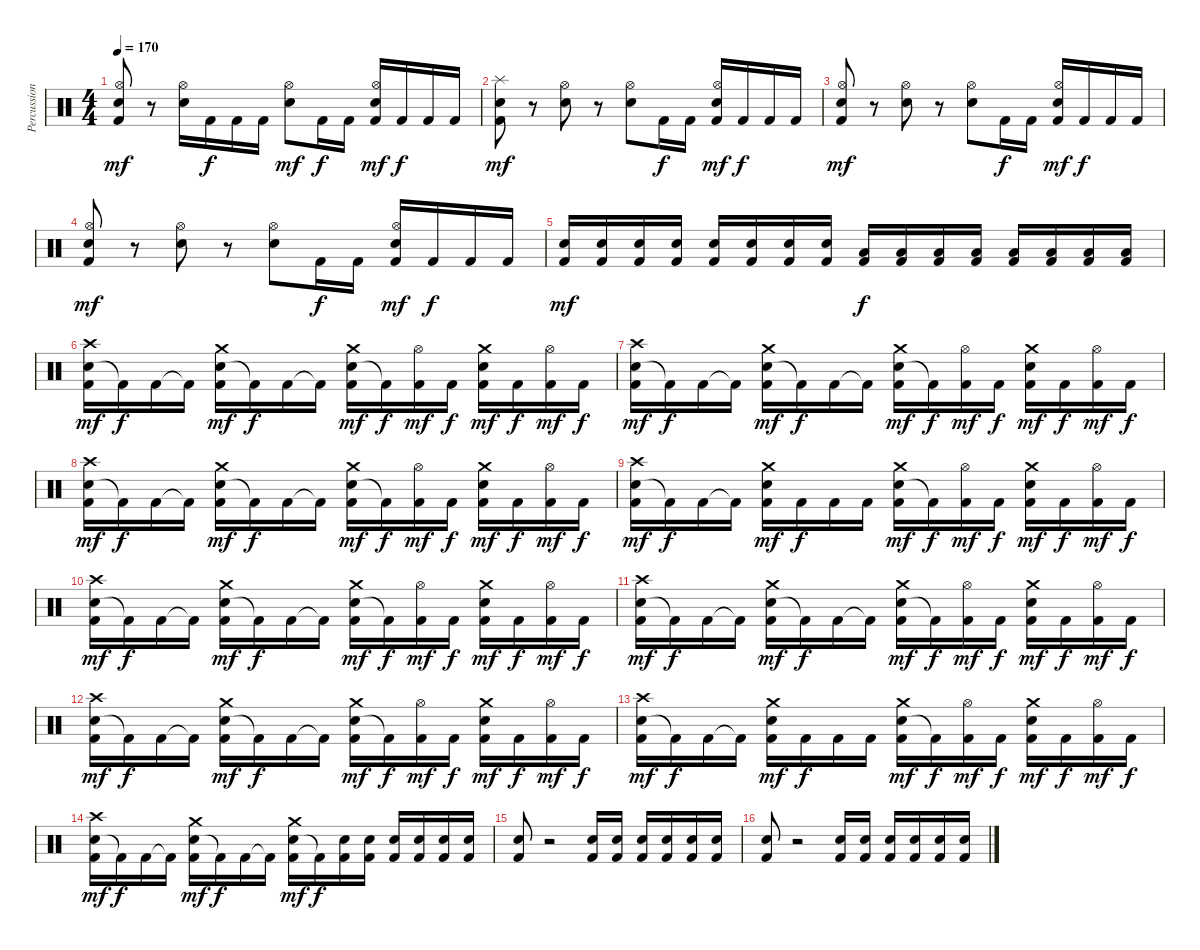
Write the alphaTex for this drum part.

\track ("Percussion" "Percussion") {instrument percussion}
\staff {score}
\articulation defaults
\ts (4 4)
\tempo 170
\clef neutral
\ks c
("Snare (hit) 2" "Hi-Hat (open)" "Kick (hit) 2").8{dy mf} r.8 ("Snare (hit) 2" "Hi-Hat (open)").16 "Kick (hit) 2".16{dy f} "Kick (hit) 2".16 "Kick (hit) 2".16 ("Snare (hit) 2" "Hi-Hat (open)").8{dy mf} "Kick (hit) 2".16{dy f} "Kick (hit) 2".16 ("Snare (hit) 2" "Hi-Hat (open)" "Kick (hit) 2").16{dy mf} "Kick (hit) 2".16{dy f} "Kick (hit) 2".16 "Kick (hit) 2".16 |
("Snare (hit) 2" "Splash (hit)" "Kick (hit) 2").8{dy mf} r.8 ("Snare (hit) 2" "Hi-Hat (open)").8 r.8 ("Snare (hit) 2" "Hi-Hat (open)").8 "Kick (hit) 2".16{dy f} "Kick (hit) 2".16 ("Snare (hit) 2" "Hi-Hat (open)" "Kick (hit) 2").16{dy mf} "Kick (hit) 2".16{dy f} "Kick (hit) 2".16 "Kick (hit) 2".16 |
("Snare (hit) 2" "Hi-Hat (open)" "Kick (hit) 2").8{dy mf} r.8 ("Snare (hit) 2" "Hi-Hat (open)").8 r.8 ("Snare (hit) 2" "Hi-Hat (open)").8 "Kick (hit) 2".16{dy f} "Kick (hit) 2".16 ("Snare (hit) 2" "Hi-Hat (open)" "Kick (hit) 2").16{dy mf} "Kick (hit) 2".16{dy f} "Kick (hit) 2".16 "Kick (hit) 2".16 |
("Snare (hit) 2" "Hi-Hat (open)" "Kick (hit) 2").8{dy mf} r.8 ("Snare (hit) 2" "Hi-Hat (open)").8 r.8 ("Snare (hit) 2" "Hi-Hat (open)").8 "Kick (hit) 2".16{dy f} "Kick (hit) 2".16 ("Snare (hit) 2" "Hi-Hat (open)" "Kick (hit) 2").16{dy mf} "Kick (hit) 2".16{dy f} "Kick (hit) 2".16 "Kick (hit) 2".16 |
("Snare (hit) 2" "Kick (hit) 2").16{dy mf} ("Snare (hit) 2" "Kick (hit) 2").16 ("Snare (hit) 2" "Kick (hit) 2").16 ("Snare (hit) 2" "Kick (hit) 2").16 ("Snare (hit) 2" "Kick (hit) 2").16 ("Snare (hit) 2" "Kick (hit) 2").16 ("Snare (hit) 2" "Kick (hit) 2").16 ("Snare (hit) 2" "Kick (hit) 2").16 ("Low Tom (hit)" "Kick (hit) 2").16{dy f} ("Low Tom (hit)" "Kick (hit) 2").16 ("Low Tom (hit)" "Kick (hit) 2").16 ("Low Tom (hit)" "Kick (hit) 2").16 ("Low Tom (hit)" "Kick (hit) 2").16 ("Low Tom (hit)" "Kick (hit) 2").16 ("Low Tom (hit)" "Kick (hit) 2").16 ("Low Tom (hit)" "Kick (hit) 2").16 |
("Snare (hit) 2" "Crash high (hit)" "Kick (hit) 2").16{dy mf} "Kick (hit) 2"{t}.16{dy f} "Kick (hit) 2".16 "Kick (hit) 2"{t}.16 ("Snare (hit) 2" "Crash medium (hit)" "Kick (hit) 2").16{dy mf} "Kick (hit) 2"{t}.16{dy f} "Kick (hit) 2".16 "Kick (hit) 2"{t}.16 ("Snare (hit) 2" "Crash medium (hit)" "Kick (hit) 2").16{dy mf} "Kick (hit) 2"{t}.16{dy f} ("Hi-Hat (open)" "Kick (hit) 2").16{dy mf} "Kick (hit) 2".16{dy f} ("Snare (hit) 2" "Crash medium (hit)" "Kick (hit) 2").16{dy mf} "Kick (hit) 2".16{dy f} ("Hi-Hat (open)" "Kick (hit) 2").16{dy mf} "Kick (hit) 2".16{dy f} |
("Snare (hit) 2" "Crash high (hit)" "Kick (hit) 2").16{dy mf} "Kick (hit) 2"{t}.16{dy f} "Kick (hit) 2".16 "Kick (hit) 2"{t}.16 ("Snare (hit) 2" "Crash medium (hit)" "Kick (hit) 2").16{dy mf} "Kick (hit) 2"{t}.16{dy f} "Kick (hit) 2".16 "Kick (hit) 2"{t}.16 ("Snare (hit) 2" "Crash medium (hit)" "Kick (hit) 2").16{dy mf} "Kick (hit) 2"{t}.16{dy f} ("Hi-Hat (open)" "Kick (hit) 2").16{dy mf} "Kick (hit) 2".16{dy f} ("Snare (hit) 2" "Crash medium (hit)" "Kick (hit) 2").16{dy mf} "Kick (hit) 2".16{dy f} ("Hi-Hat (open)" "Kick (hit) 2").16{dy mf} "Kick (hit) 2".16{dy f} |
("Snare (hit) 2" "Crash high (hit)" "Kick (hit) 2").16{dy mf} "Kick (hit) 2"{t}.16{dy f} "Kick (hit) 2".16 "Kick (hit) 2"{t}.16 ("Snare (hit) 2" "Crash medium (hit)" "Kick (hit) 2").16{dy mf} "Kick (hit) 2"{t}.16{dy f} "Kick (hit) 2".16 "Kick (hit) 2"{t}.16 ("Snare (hit) 2" "Crash medium (hit)" "Kick (hit) 2").16{dy mf} "Kick (hit) 2"{t}.16{dy f} ("Hi-Hat (open)" "Kick (hit) 2").16{dy mf} "Kick (hit) 2".16{dy f} ("Snare (hit) 2" "Crash medium (hit)" "Kick (hit) 2").16{dy mf} "Kick (hit) 2".16{dy f} ("Hi-Hat (open)" "Kick (hit) 2").16{dy mf} "Kick (hit) 2".16{dy f} |
("Snare (hit) 2" "Crash high (hit)" "Kick (hit) 2").16{dy mf} "Kick (hit) 2"{t}.16{dy f} "Kick (hit) 2".16 "Kick (hit) 2"{t}.16 ("Snare (hit) 2" "Crash medium (hit)" "Kick (hit) 2").16{dy mf} "Kick (hit) 2".16{dy f} "Kick (hit) 2".16 "Kick (hit) 2".16 ("Snare (hit) 2" "Crash medium (hit)" "Kick (hit) 2").16{dy mf} "Kick (hit) 2"{t}.16{dy f} ("Hi-Hat (open)" "Kick (hit) 2").16{dy mf} "Kick (hit) 2".16{dy f} ("Snare (hit) 2" "Crash medium (hit)" "Kick (hit) 2").16{dy mf} "Kick (hit) 2".16{dy f} ("Hi-Hat (open)" "Kick (hit) 2").16{dy mf} "Kick (hit) 2".16{dy f} |
("Snare (hit) 2" "Crash high (hit)" "Kick (hit) 2").16{dy mf} "Kick (hit) 2"{t}.16{dy f} "Kick (hit) 2".16 "Kick (hit) 2"{t}.16 ("Snare (hit) 2" "Crash medium (hit)" "Kick (hit) 2").16{dy mf} "Kick (hit) 2"{t}.16{dy f} "Kick (hit) 2".16 "Kick (hit) 2"{t}.16 ("Snare (hit) 2" "Crash medium (hit)" "Kick (hit) 2").16{dy mf} "Kick (hit) 2"{t}.16{dy f} ("Hi-Hat (open)" "Kick (hit) 2").16{dy mf} "Kick (hit) 2".16{dy f} ("Snare (hit) 2" "Crash medium (hit)" "Kick (hit) 2").16{dy mf} "Kick (hit) 2".16{dy f} ("Hi-Hat (open)" "Kick (hit) 2").16{dy mf} "Kick (hit) 2".16{dy f} |
("Snare (hit) 2" "Crash high (hit)" "Kick (hit) 2").16{dy mf} "Kick (hit) 2"{t}.16{dy f} "Kick (hit) 2".16 "Kick (hit) 2"{t}.16 ("Snare (hit) 2" "Crash medium (hit)" "Kick (hit) 2").16{dy mf} "Kick (hit) 2"{t}.16{dy f} "Kick (hit) 2".16 "Kick (hit) 2"{t}.16 ("Snare (hit) 2" "Crash medium (hit)" "Kick (hit) 2").16{dy mf} "Kick (hit) 2"{t}.16{dy f} ("Hi-Hat (open)" "Kick (hit) 2").16{dy mf} "Kick (hit) 2".16{dy f} ("Snare (hit) 2" "Crash medium (hit)" "Kick (hit) 2").16{dy mf} "Kick (hit) 2".16{dy f} ("Hi-Hat (open)" "Kick (hit) 2").16{dy mf} "Kick (hit) 2".16{dy f} |
("Snare (hit) 2" "Crash high (hit)" "Kick (hit) 2").16{dy mf} "Kick (hit) 2"{t}.16{dy f} "Kick (hit) 2".16 "Kick (hit) 2"{t}.16 ("Snare (hit) 2" "Crash medium (hit)" "Kick (hit) 2").16{dy mf} "Kick (hit) 2"{t}.16{dy f} "Kick (hit) 2".16 "Kick (hit) 2"{t}.16 ("Snare (hit) 2" "Crash medium (hit)" "Kick (hit) 2").16{dy mf} "Kick (hit) 2"{t}.16{dy f} ("Hi-Hat (open)" "Kick (hit) 2").16{dy mf} "Kick (hit) 2".16{dy f} ("Snare (hit) 2" "Crash medium (hit)" "Kick (hit) 2").16{dy mf} "Kick (hit) 2".16{dy f} ("Hi-Hat (open)" "Kick (hit) 2").16{dy mf} "Kick (hit) 2".16{dy f} |
("Snare (hit) 2" "Crash high (hit)" "Kick (hit) 2").16{dy mf} "Kick (hit) 2"{t}.16{dy f} "Kick (hit) 2".16 "Kick (hit) 2"{t}.16 ("Snare (hit) 2" "Crash medium (hit)" "Kick (hit) 2").16{dy mf} "Kick (hit) 2".16{dy f} "Kick (hit) 2".16 "Kick (hit) 2".16 ("Snare (hit) 2" "Crash medium (hit)" "Kick (hit) 2").16{dy mf} "Kick (hit) 2"{t}.16{dy f} ("Hi-Hat (open)" "Kick (hit) 2").16{dy mf} "Kick (hit) 2".16{dy f} ("Snare (hit) 2" "Crash medium (hit)" "Kick (hit) 2").16{dy mf} "Kick (hit) 2".16{dy f} ("Hi-Hat (open)" "Kick (hit) 2").16{dy mf} "Kick (hit) 2".16{dy f} |
("Snare (hit) 2" "Crash high (hit)" "Kick (hit) 2").16{dy mf} "Kick (hit) 2"{t}.16{dy f} "Kick (hit) 2".16 "Kick (hit) 2"{t}.16 ("Snare (hit) 2" "Crash medium (hit)" "Kick (hit) 2").16{dy mf} "Kick (hit) 2"{t}.16{dy f} "Kick (hit) 2".16 "Kick (hit) 2"{t}.16 ("Snare (hit) 2" "Crash medium (hit)" "Kick (hit) 2").16{dy mf} "Kick (hit) 2"{t}.16{dy f} ("Snare (hit) 2" "Kick (hit) 2").16 ("Snare (hit) 2" "Kick (hit) 2").16 ("Snare (hit) 2" "Kick (hit) 2").16 ("Snare (hit) 2" "Kick (hit) 2").16 ("Snare (hit) 2" "Kick (hit) 2").16 ("Snare (hit) 2" "Kick (hit) 2").16 |
("Snare (hit) 2" "Kick (hit) 2").8 r.2 ("Snare (hit) 2" "Kick (hit) 2").16 ("Snare (hit) 2" "Kick (hit) 2").16 ("Snare (hit) 2" "Kick (hit) 2").16 ("Snare (hit) 2" "Kick (hit) 2").16 ("Snare (hit) 2" "Kick (hit) 2").16 ("Snare (hit) 2" "Kick (hit) 2").16 |
("Snare (hit) 2" "Kick (hit) 2").8 r.2 ("Snare (hit) 2" "Kick (hit) 2").16 ("Snare (hit) 2" "Kick (hit) 2").16 ("Snare (hit) 2" "Kick (hit) 2").16 ("Snare (hit) 2" "Kick (hit) 2").16 ("Snare (hit) 2" "Kick (hit) 2").16 ("Snare (hit) 2" "Kick (hit) 2").16
